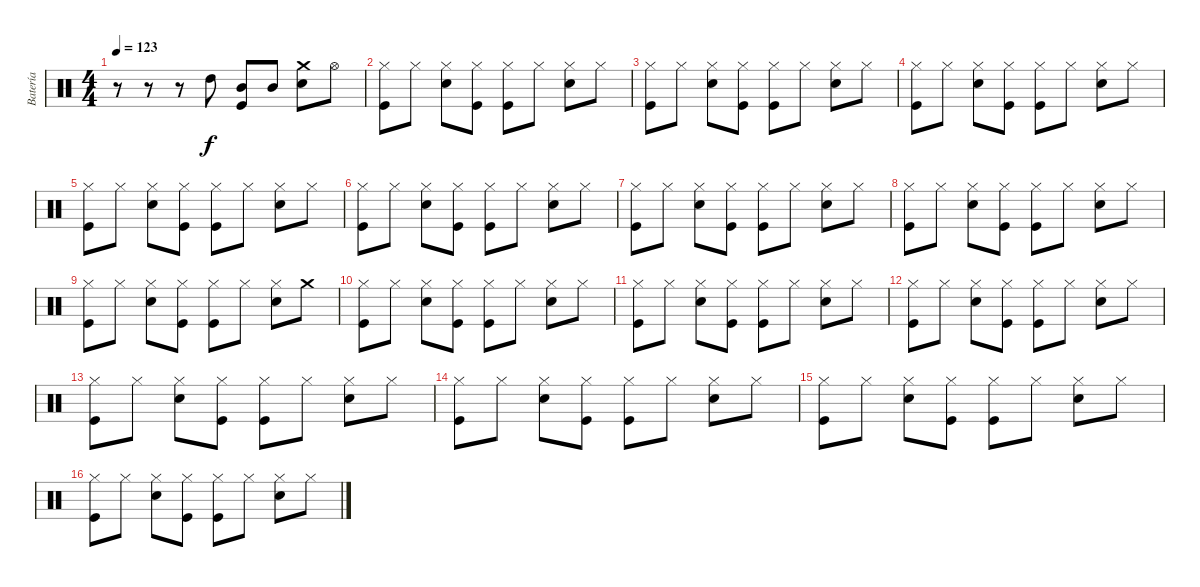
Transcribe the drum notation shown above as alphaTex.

\track ("Batería" "Batería") {instrument percussion}
\staff {score}
\articulation defaults
\ts (4 4)
\tempo 123
\clef neutral
\ks c
r.8{dy f} r.8 r.8 "High Tom (hit)".8 ("Mid Tom (hit)" "Kick (hit)").8 "Mid Tom (hit)".8 ("Crash medium (hit)" "Snare (hit) 2").8 "Hi-Hat (open)".8 |
("Hi-Hat (closed)" "Kick (hit)").8 "Hi-Hat (closed)".8 ("Hi-Hat (closed)" "Snare (hit) 2").8 ("Hi-Hat (closed)" "Kick (hit)").8 ("Hi-Hat (closed)" "Kick (hit)").8 "Hi-Hat (closed)".8 ("Hi-Hat (closed)" "Snare (hit) 2").8 "Hi-Hat (closed)".8 |
("Hi-Hat (closed)" "Kick (hit)").8 "Hi-Hat (closed)".8 ("Hi-Hat (closed)" "Snare (hit) 2").8 ("Hi-Hat (closed)" "Kick (hit)").8 ("Hi-Hat (closed)" "Kick (hit)").8 "Hi-Hat (closed)".8 ("Hi-Hat (closed)" "Snare (hit) 2").8 "Hi-Hat (closed)".8 |
("Hi-Hat (closed)" "Kick (hit)").8 "Hi-Hat (closed)".8 ("Hi-Hat (closed)" "Snare (hit) 2").8 ("Hi-Hat (closed)" "Kick (hit)").8 ("Hi-Hat (closed)" "Kick (hit)").8 "Hi-Hat (closed)".8 ("Hi-Hat (closed)" "Snare (hit) 2").8 "Hi-Hat (closed)".8 |
("Hi-Hat (closed)" "Kick (hit)").8 "Hi-Hat (closed)".8 ("Hi-Hat (closed)" "Snare (hit) 2").8 ("Hi-Hat (closed)" "Kick (hit)").8 ("Hi-Hat (closed)" "Kick (hit)").8 "Hi-Hat (closed)".8 ("Hi-Hat (closed)" "Snare (hit) 2").8 "Hi-Hat (closed)".8 |
("Hi-Hat (closed)" "Kick (hit)").8 "Hi-Hat (closed)".8 ("Hi-Hat (closed)" "Snare (hit) 2").8 ("Hi-Hat (closed)" "Kick (hit)").8 ("Hi-Hat (closed)" "Kick (hit)").8 "Hi-Hat (closed)".8 ("Hi-Hat (closed)" "Snare (hit) 2").8 "Hi-Hat (closed)".8 |
("Hi-Hat (closed)" "Kick (hit)").8 "Hi-Hat (closed)".8 ("Hi-Hat (closed)" "Snare (hit) 2").8 ("Hi-Hat (closed)" "Kick (hit)").8 ("Hi-Hat (closed)" "Kick (hit)").8 "Hi-Hat (closed)".8 ("Hi-Hat (closed)" "Snare (hit) 2").8 "Hi-Hat (closed)".8 |
("Hi-Hat (closed)" "Kick (hit)").8 "Hi-Hat (closed)".8 ("Hi-Hat (closed)" "Snare (hit) 2").8 ("Hi-Hat (closed)" "Kick (hit)").8 ("Hi-Hat (closed)" "Kick (hit)").8 "Hi-Hat (closed)".8 ("Hi-Hat (closed)" "Snare (hit) 2").8 "Hi-Hat (closed)".8 |
("Hi-Hat (closed)" "Kick (hit)").8 "Hi-Hat (closed)".8 ("Hi-Hat (closed)" "Snare (hit) 2").8 ("Hi-Hat (closed)" "Kick (hit)").8 ("Hi-Hat (closed)" "Kick (hit)").8 "Hi-Hat (closed)".8 ("Hi-Hat (closed)" "Snare (hit) 2").8 "Crash medium (hit)".8 |
("Hi-Hat (closed)" "Kick (hit)").8 "Hi-Hat (closed)".8 ("Hi-Hat (closed)" "Snare (hit) 2").8 ("Hi-Hat (closed)" "Kick (hit)").8 ("Hi-Hat (closed)" "Kick (hit)").8 "Hi-Hat (closed)".8 ("Hi-Hat (closed)" "Snare (hit) 2").8 "Hi-Hat (closed)".8 |
("Hi-Hat (closed)" "Kick (hit)").8 "Hi-Hat (closed)".8 ("Hi-Hat (closed)" "Snare (hit) 2").8 ("Hi-Hat (closed)" "Kick (hit)").8 ("Hi-Hat (closed)" "Kick (hit)").8 "Hi-Hat (closed)".8 ("Hi-Hat (closed)" "Snare (hit) 2").8 "Hi-Hat (closed)".8 |
("Hi-Hat (closed)" "Kick (hit)").8 "Hi-Hat (closed)".8 ("Hi-Hat (closed)" "Snare (hit) 2").8 ("Hi-Hat (closed)" "Kick (hit)").8 ("Hi-Hat (closed)" "Kick (hit)").8 "Hi-Hat (closed)".8 ("Hi-Hat (closed)" "Snare (hit) 2").8 "Hi-Hat (closed)".8 |
("Hi-Hat (closed)" "Kick (hit)").8 "Hi-Hat (closed)".8 ("Hi-Hat (closed)" "Snare (hit) 2").8 ("Hi-Hat (closed)" "Kick (hit)").8 ("Hi-Hat (closed)" "Kick (hit)").8 "Hi-Hat (closed)".8 ("Hi-Hat (closed)" "Snare (hit) 2").8 "Hi-Hat (closed)".8 |
("Hi-Hat (closed)" "Kick (hit)").8 "Hi-Hat (closed)".8 ("Hi-Hat (closed)" "Snare (hit) 2").8 ("Hi-Hat (closed)" "Kick (hit)").8 ("Hi-Hat (closed)" "Kick (hit)").8 "Hi-Hat (closed)".8 ("Hi-Hat (closed)" "Snare (hit) 2").8 "Hi-Hat (closed)".8 |
("Hi-Hat (closed)" "Kick (hit)").8 "Hi-Hat (closed)".8 ("Hi-Hat (closed)" "Snare (hit) 2").8 ("Hi-Hat (closed)" "Kick (hit)").8 ("Hi-Hat (closed)" "Kick (hit)").8 "Hi-Hat (closed)".8 ("Hi-Hat (closed)" "Snare (hit) 2").8 "Hi-Hat (closed)".8 |
("Hi-Hat (closed)" "Kick (hit)").8 "Hi-Hat (closed)".8 ("Hi-Hat (closed)" "Snare (hit) 2").8 ("Hi-Hat (closed)" "Kick (hit)").8 ("Hi-Hat (closed)" "Kick (hit)").8 "Hi-Hat (closed)".8 ("Hi-Hat (closed)" "Snare (hit) 2").8 "Hi-Hat (closed)".8
